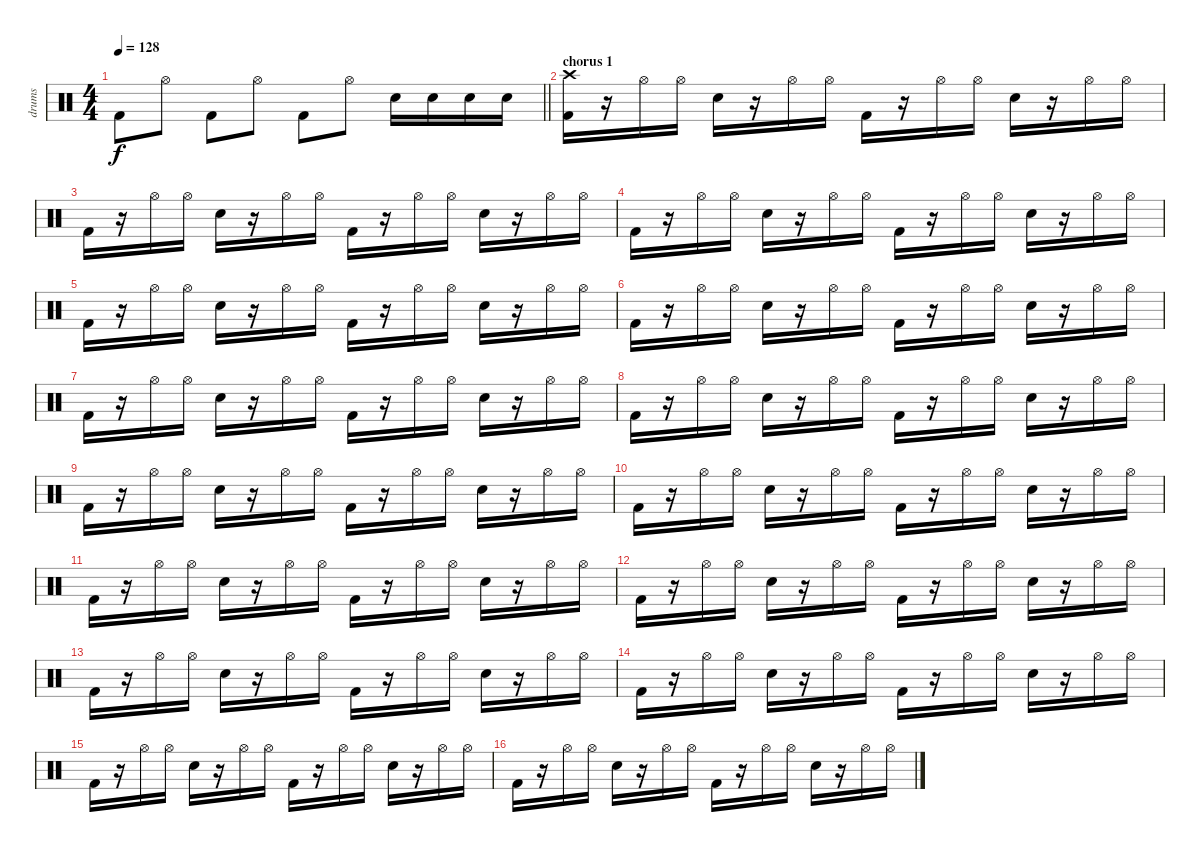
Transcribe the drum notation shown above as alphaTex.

\track ("drums" "drums") {instrument percussion}
\staff {score}
\articulation defaults
\ts (4 4)
\tempo 128
\clef neutral
\barLineRight lightlight
\ks c "Kick (hit) 2".8{dy f} "Hi-Hat (open)".8 "Kick (hit) 2".8 "Hi-Hat (open)".8 "Kick (hit) 2".8 "Hi-Hat (open)".8 "Electric Snare (hit)".16 "Electric Snare (hit)".16 "Electric Snare (hit)".16 "Electric Snare (hit)".16
|
\section ("" "chorus 1")
("Kick (hit) 2" "Crash high (hit)").16 r.16 "Hi-Hat (open)".16 "Hi-Hat (open)".16 "Electric Snare (hit)".16 r.16 "Hi-Hat (open)".16 "Hi-Hat (open)".16 "Kick (hit) 2".16 r.16 "Hi-Hat (open)".16 "Hi-Hat (open)".16 "Electric Snare (hit)".16 r.16 "Hi-Hat (open)".16 "Hi-Hat (open)".16 |
"Kick (hit) 2".16 r.16 "Hi-Hat (open)".16 "Hi-Hat (open)".16 "Electric Snare (hit)".16 r.16 "Hi-Hat (open)".16 "Hi-Hat (open)".16 "Kick (hit) 2".16 r.16 "Hi-Hat (open)".16 "Hi-Hat (open)".16 "Electric Snare (hit)".16 r.16 "Hi-Hat (open)".16 "Hi-Hat (open)".16 |
"Kick (hit) 2".16 r.16 "Hi-Hat (open)".16 "Hi-Hat (open)".16 "Electric Snare (hit)".16 r.16 "Hi-Hat (open)".16 "Hi-Hat (open)".16 "Kick (hit) 2".16 r.16 "Hi-Hat (open)".16 "Hi-Hat (open)".16 "Electric Snare (hit)".16 r.16 "Hi-Hat (open)".16 "Hi-Hat (open)".16 |
"Kick (hit) 2".16 r.16 "Hi-Hat (open)".16 "Hi-Hat (open)".16 "Electric Snare (hit)".16 r.16 "Hi-Hat (open)".16 "Hi-Hat (open)".16 "Kick (hit) 2".16 r.16 "Hi-Hat (open)".16 "Hi-Hat (open)".16 "Electric Snare (hit)".16 r.16 "Hi-Hat (open)".16 "Hi-Hat (open)".16 |
"Kick (hit) 2".16 r.16 "Hi-Hat (open)".16 "Hi-Hat (open)".16 "Electric Snare (hit)".16 r.16 "Hi-Hat (open)".16 "Hi-Hat (open)".16 "Kick (hit) 2".16 r.16 "Hi-Hat (open)".16 "Hi-Hat (open)".16 "Electric Snare (hit)".16 r.16 "Hi-Hat (open)".16 "Hi-Hat (open)".16 |
"Kick (hit) 2".16 r.16 "Hi-Hat (open)".16 "Hi-Hat (open)".16 "Electric Snare (hit)".16 r.16 "Hi-Hat (open)".16 "Hi-Hat (open)".16 "Kick (hit) 2".16 r.16 "Hi-Hat (open)".16 "Hi-Hat (open)".16 "Electric Snare (hit)".16 r.16 "Hi-Hat (open)".16 "Hi-Hat (open)".16 |
"Kick (hit) 2".16 r.16 "Hi-Hat (open)".16 "Hi-Hat (open)".16 "Electric Snare (hit)".16 r.16 "Hi-Hat (open)".16 "Hi-Hat (open)".16 "Kick (hit) 2".16 r.16 "Hi-Hat (open)".16 "Hi-Hat (open)".16 "Electric Snare (hit)".16 r.16 "Hi-Hat (open)".16 "Hi-Hat (open)".16 |
"Kick (hit) 2".16 r.16 "Hi-Hat (open)".16 "Hi-Hat (open)".16 "Electric Snare (hit)".16 r.16 "Hi-Hat (open)".16 "Hi-Hat (open)".16 "Kick (hit) 2".16 r.16 "Hi-Hat (open)".16 "Hi-Hat (open)".16 "Electric Snare (hit)".16 r.16 "Hi-Hat (open)".16 "Hi-Hat (open)".16 |
"Kick (hit) 2".16 r.16 "Hi-Hat (open)".16 "Hi-Hat (open)".16 "Electric Snare (hit)".16 r.16 "Hi-Hat (open)".16 "Hi-Hat (open)".16 "Kick (hit) 2".16 r.16 "Hi-Hat (open)".16 "Hi-Hat (open)".16 "Electric Snare (hit)".16 r.16 "Hi-Hat (open)".16 "Hi-Hat (open)".16 |
"Kick (hit) 2".16 r.16 "Hi-Hat (open)".16 "Hi-Hat (open)".16 "Electric Snare (hit)".16 r.16 "Hi-Hat (open)".16 "Hi-Hat (open)".16 "Kick (hit) 2".16 r.16 "Hi-Hat (open)".16 "Hi-Hat (open)".16 "Electric Snare (hit)".16 r.16 "Hi-Hat (open)".16 "Hi-Hat (open)".16 |
"Kick (hit) 2".16 r.16 "Hi-Hat (open)".16 "Hi-Hat (open)".16 "Electric Snare (hit)".16 r.16 "Hi-Hat (open)".16 "Hi-Hat (open)".16 "Kick (hit) 2".16 r.16 "Hi-Hat (open)".16 "Hi-Hat (open)".16 "Electric Snare (hit)".16 r.16 "Hi-Hat (open)".16 "Hi-Hat (open)".16 |
"Kick (hit) 2".16 r.16 "Hi-Hat (open)".16 "Hi-Hat (open)".16 "Electric Snare (hit)".16 r.16 "Hi-Hat (open)".16 "Hi-Hat (open)".16 "Kick (hit) 2".16 r.16 "Hi-Hat (open)".16 "Hi-Hat (open)".16 "Electric Snare (hit)".16 r.16 "Hi-Hat (open)".16 "Hi-Hat (open)".16 |
"Kick (hit) 2".16 r.16 "Hi-Hat (open)".16 "Hi-Hat (open)".16 "Electric Snare (hit)".16 r.16 "Hi-Hat (open)".16 "Hi-Hat (open)".16 "Kick (hit) 2".16 r.16 "Hi-Hat (open)".16 "Hi-Hat (open)".16 "Electric Snare (hit)".16 r.16 "Hi-Hat (open)".16 "Hi-Hat (open)".16 |
"Kick (hit) 2".16 r.16 "Hi-Hat (open)".16 "Hi-Hat (open)".16 "Electric Snare (hit)".16 r.16 "Hi-Hat (open)".16 "Hi-Hat (open)".16 "Kick (hit) 2".16 r.16 "Hi-Hat (open)".16 "Hi-Hat (open)".16 "Electric Snare (hit)".16 r.16 "Hi-Hat (open)".16 "Hi-Hat (open)".16 |
"Kick (hit) 2".16 r.16 "Hi-Hat (open)".16 "Hi-Hat (open)".16 "Electric Snare (hit)".16 r.16 "Hi-Hat (open)".16 "Hi-Hat (open)".16 "Kick (hit) 2".16 r.16 "Hi-Hat (open)".16 "Hi-Hat (open)".16 "Electric Snare (hit)".16 r.16 "Hi-Hat (open)".16 "Hi-Hat (open)".16
